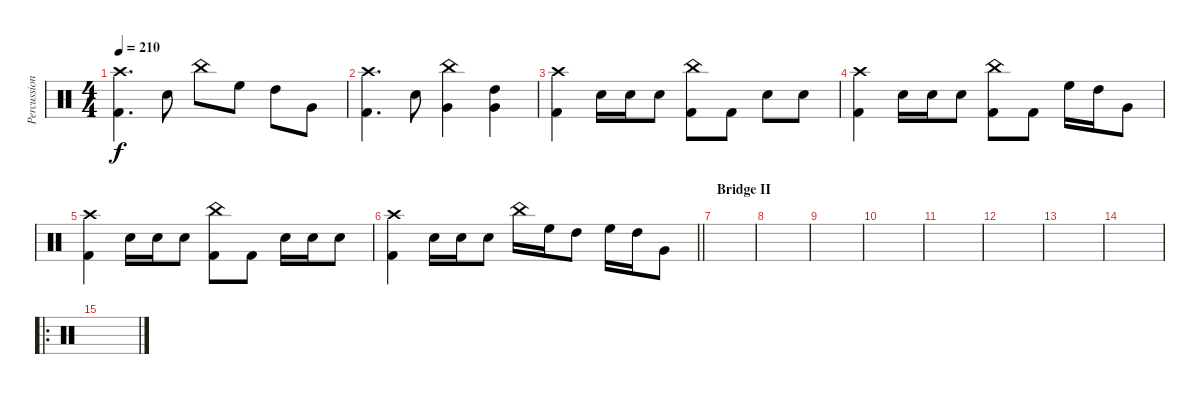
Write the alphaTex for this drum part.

\track ("Percussion" "Percussion") {instrument percussion}
\staff {score}
\articulation defaults
\ts (4 4)
\tempo 210
\clef neutral
\ks c
("Crash high (hit)" "Kick (hit) 2").4{d dy f} "Snare (hit) 2".8 "China (hit)".8 "High Floor Tom (hit)".8 "High Tom (hit)".8 "Very Low Tom (hit)".8 |
("Crash high (hit)" "Kick (hit) 2").4{d} "Snare (hit) 2".8 ("China (hit)" "Very Low Tom (hit)").4 ("High Tom (hit)" "Very Low Tom (hit)").4 |
("Crash high (hit)" "Kick (hit) 2").4 "Snare (hit) 2".16 "Snare (hit) 2".16 "Snare (hit) 2".8 ("China (hit)" "Kick (hit) 2").8 "Kick (hit) 2".8 "Snare (hit) 2".8 "Snare (hit) 2".8 |
("Crash high (hit)" "Kick (hit) 2").4 "Snare (hit) 2".16 "Snare (hit) 2".16 "Snare (hit) 2".8 ("China (hit)" "Kick (hit) 2").8 "Kick (hit) 2".8 "High Floor Tom (hit)".16 "High Tom (hit)".16 "Very Low Tom (hit)".8 |
("Crash high (hit)" "Kick (hit) 2").4 "Snare (hit) 2".16 "Snare (hit) 2".16 "Snare (hit) 2".8 ("China (hit)" "Kick (hit) 2").8 "Kick (hit) 2".8 "Snare (hit) 2".16 "Snare (hit) 2".16 "Snare (hit) 2".8 |
\barLineRight lightlight
("Crash high (hit)" "Kick (hit) 2").4 "Snare (hit) 2".16 "Snare (hit) 2".16 "Snare (hit) 2".8 "China (hit)".16 "High Floor Tom (hit)".16 "High Tom (hit)".8 "High Floor Tom (hit)".16 "High Tom (hit)".16 "Very Low Tom (hit)".8 |
\section ("" "Bridge II")
|
|
|
|
|
|
|
|
\ro
